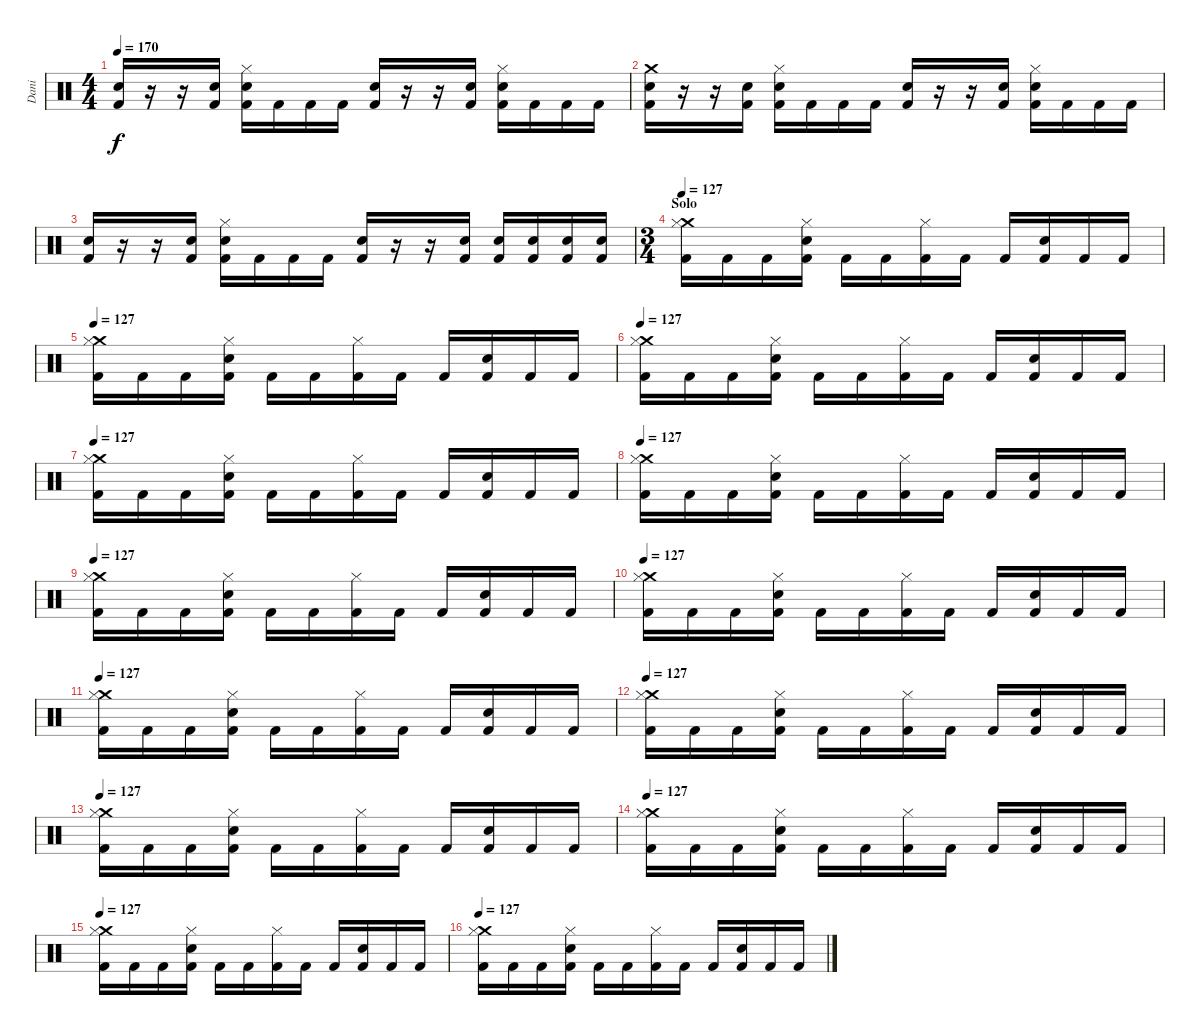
\track ("Dani" "Dani") {instrument percussion}
\staff {score}
\articulation defaults
\ts (4 4)
\tempo 170
\clef neutral
\ks c
("Electric Snare (hit)" "Kick (hit) 2").16{dy f} r.16 r.16 ("Electric Snare (hit)" "Kick (hit) 2").16 ("Hi-Hat (closed)" "Electric Snare (hit)" "Kick (hit) 2").16 "Kick (hit) 2".16 "Kick (hit) 2".16 "Kick (hit) 2".16 ("Electric Snare (hit)" "Kick (hit) 2").16 r.16 r.16 ("Electric Snare (hit)" "Kick (hit) 2").16 ("Hi-Hat (closed)" "Electric Snare (hit)" "Kick (hit) 2").16 "Kick (hit) 2".16 "Kick (hit) 2".16 "Kick (hit) 2".16 |
("Crash medium (hit)" "Electric Snare (hit)" "Kick (hit) 2").16 r.16 r.16 ("Electric Snare (hit)" "Kick (hit) 2").16 ("Hi-Hat (closed)" "Electric Snare (hit)" "Kick (hit) 2").16 "Kick (hit) 2".16 "Kick (hit) 2".16 "Kick (hit) 2".16 ("Electric Snare (hit)" "Kick (hit) 2").16 r.16 r.16 ("Electric Snare (hit)" "Kick (hit) 2").16 ("Hi-Hat (closed)" "Electric Snare (hit)" "Kick (hit) 2").16 "Kick (hit) 2".16 "Kick (hit) 2".16 "Kick (hit) 2".16 |
("Electric Snare (hit)" "Kick (hit) 2").16 r.16 r.16 ("Electric Snare (hit)" "Kick (hit) 2").16 ("Hi-Hat (closed)" "Electric Snare (hit)" "Kick (hit) 2").16 "Kick (hit) 2".16 "Kick (hit) 2".16 "Kick (hit) 2".16 ("Electric Snare (hit)" "Kick (hit) 2").16 r.16 r.16 ("Electric Snare (hit)" "Kick (hit) 2").16 ("Electric Snare (hit)" "Kick (hit) 2").16 ("Electric Snare (hit)" "Kick (hit) 2").16 ("Electric Snare (hit)" "Kick (hit) 2").16 ("Electric Snare (hit)" "Kick (hit) 2").16 |
\ts (3 4)
\section ("" "Solo")
\tempo 127
("Crash medium (hit)" "Hi-Hat (closed)" "Kick (hit) 2").16 "Kick (hit) 2".16 "Kick (hit) 2".16 ("Hi-Hat (closed)" "Electric Snare (hit)" "Kick (hit) 2").16 "Kick (hit) 2".16 "Kick (hit) 2".16 ("Hi-Hat (closed)" "Kick (hit) 2").16 "Kick (hit) 2".16 "Kick (hit) 2".16 ("Electric Snare (hit)" "Kick (hit) 2").16 "Kick (hit) 2".16 "Kick (hit) 2".16 |
\tempo 127
("Crash medium (hit)" "Hi-Hat (closed)" "Kick (hit) 2").16 "Kick (hit) 2".16 "Kick (hit) 2".16 ("Hi-Hat (closed)" "Electric Snare (hit)" "Kick (hit) 2").16 "Kick (hit) 2".16 "Kick (hit) 2".16 ("Hi-Hat (closed)" "Kick (hit) 2").16 "Kick (hit) 2".16 "Kick (hit) 2".16 ("Electric Snare (hit)" "Kick (hit) 2").16 "Kick (hit) 2".16 "Kick (hit) 2".16 |
\tempo 127
("Crash medium (hit)" "Hi-Hat (closed)" "Kick (hit) 2").16 "Kick (hit) 2".16 "Kick (hit) 2".16 ("Hi-Hat (closed)" "Electric Snare (hit)" "Kick (hit) 2").16 "Kick (hit) 2".16 "Kick (hit) 2".16 ("Hi-Hat (closed)" "Kick (hit) 2").16 "Kick (hit) 2".16 "Kick (hit) 2".16 ("Electric Snare (hit)" "Kick (hit) 2").16 "Kick (hit) 2".16 "Kick (hit) 2".16 |
\tempo 127
("Crash medium (hit)" "Hi-Hat (closed)" "Kick (hit) 2").16 "Kick (hit) 2".16 "Kick (hit) 2".16 ("Hi-Hat (closed)" "Electric Snare (hit)" "Kick (hit) 2").16 "Kick (hit) 2".16 "Kick (hit) 2".16 ("Hi-Hat (closed)" "Kick (hit) 2").16 "Kick (hit) 2".16 "Kick (hit) 2".16 ("Electric Snare (hit)" "Kick (hit) 2").16 "Kick (hit) 2".16 "Kick (hit) 2".16 |
\tempo 127
("Crash medium (hit)" "Hi-Hat (closed)" "Kick (hit) 2").16 "Kick (hit) 2".16 "Kick (hit) 2".16 ("Hi-Hat (closed)" "Electric Snare (hit)" "Kick (hit) 2").16 "Kick (hit) 2".16 "Kick (hit) 2".16 ("Hi-Hat (closed)" "Kick (hit) 2").16 "Kick (hit) 2".16 "Kick (hit) 2".16 ("Electric Snare (hit)" "Kick (hit) 2").16 "Kick (hit) 2".16 "Kick (hit) 2".16 |
\tempo 127
("Crash medium (hit)" "Hi-Hat (closed)" "Kick (hit) 2").16 "Kick (hit) 2".16 "Kick (hit) 2".16 ("Hi-Hat (closed)" "Electric Snare (hit)" "Kick (hit) 2").16 "Kick (hit) 2".16 "Kick (hit) 2".16 ("Hi-Hat (closed)" "Kick (hit) 2").16 "Kick (hit) 2".16 "Kick (hit) 2".16 ("Electric Snare (hit)" "Kick (hit) 2").16 "Kick (hit) 2".16 "Kick (hit) 2".16 |
\tempo 127
("Crash medium (hit)" "Hi-Hat (closed)" "Kick (hit) 2").16 "Kick (hit) 2".16 "Kick (hit) 2".16 ("Hi-Hat (closed)" "Electric Snare (hit)" "Kick (hit) 2").16 "Kick (hit) 2".16 "Kick (hit) 2".16 ("Hi-Hat (closed)" "Kick (hit) 2").16 "Kick (hit) 2".16 "Kick (hit) 2".16 ("Electric Snare (hit)" "Kick (hit) 2").16 "Kick (hit) 2".16 "Kick (hit) 2".16 |
\tempo 127
("Crash medium (hit)" "Hi-Hat (closed)" "Kick (hit) 2").16 "Kick (hit) 2".16 "Kick (hit) 2".16 ("Hi-Hat (closed)" "Electric Snare (hit)" "Kick (hit) 2").16 "Kick (hit) 2".16 "Kick (hit) 2".16 ("Hi-Hat (closed)" "Kick (hit) 2").16 "Kick (hit) 2".16 "Kick (hit) 2".16 ("Electric Snare (hit)" "Kick (hit) 2").16 "Kick (hit) 2".16 "Kick (hit) 2".16 |
\tempo 127
("Crash medium (hit)" "Hi-Hat (closed)" "Kick (hit) 2").16 "Kick (hit) 2".16 "Kick (hit) 2".16 ("Hi-Hat (closed)" "Electric Snare (hit)" "Kick (hit) 2").16 "Kick (hit) 2".16 "Kick (hit) 2".16 ("Hi-Hat (closed)" "Kick (hit) 2").16 "Kick (hit) 2".16 "Kick (hit) 2".16 ("Electric Snare (hit)" "Kick (hit) 2").16 "Kick (hit) 2".16 "Kick (hit) 2".16 |
\tempo 127
("Crash medium (hit)" "Hi-Hat (closed)" "Kick (hit) 2").16 "Kick (hit) 2".16 "Kick (hit) 2".16 ("Hi-Hat (closed)" "Electric Snare (hit)" "Kick (hit) 2").16 "Kick (hit) 2".16 "Kick (hit) 2".16 ("Hi-Hat (closed)" "Kick (hit) 2").16 "Kick (hit) 2".16 "Kick (hit) 2".16 ("Electric Snare (hit)" "Kick (hit) 2").16 "Kick (hit) 2".16 "Kick (hit) 2".16 |
\tempo 127
("Crash medium (hit)" "Hi-Hat (closed)" "Kick (hit) 2").16 "Kick (hit) 2".16 "Kick (hit) 2".16 ("Hi-Hat (closed)" "Electric Snare (hit)" "Kick (hit) 2").16 "Kick (hit) 2".16 "Kick (hit) 2".16 ("Hi-Hat (closed)" "Kick (hit) 2").16 "Kick (hit) 2".16 "Kick (hit) 2".16 ("Electric Snare (hit)" "Kick (hit) 2").16 "Kick (hit) 2".16 "Kick (hit) 2".16 |
\tempo 127
("Crash medium (hit)" "Hi-Hat (closed)" "Kick (hit) 2").16 "Kick (hit) 2".16 "Kick (hit) 2".16 ("Hi-Hat (closed)" "Electric Snare (hit)" "Kick (hit) 2").16 "Kick (hit) 2".16 "Kick (hit) 2".16 ("Hi-Hat (closed)" "Kick (hit) 2").16 "Kick (hit) 2".16 "Kick (hit) 2".16 ("Electric Snare (hit)" "Kick (hit) 2").16 "Kick (hit) 2".16 "Kick (hit) 2".16 |
\tempo 127
("Crash medium (hit)" "Hi-Hat (closed)" "Kick (hit) 2").16 "Kick (hit) 2".16 "Kick (hit) 2".16 ("Hi-Hat (closed)" "Electric Snare (hit)" "Kick (hit) 2").16 "Kick (hit) 2".16 "Kick (hit) 2".16 ("Hi-Hat (closed)" "Kick (hit) 2").16 "Kick (hit) 2".16 "Kick (hit) 2".16 ("Electric Snare (hit)" "Kick (hit) 2").16 "Kick (hit) 2".16 "Kick (hit) 2".16
